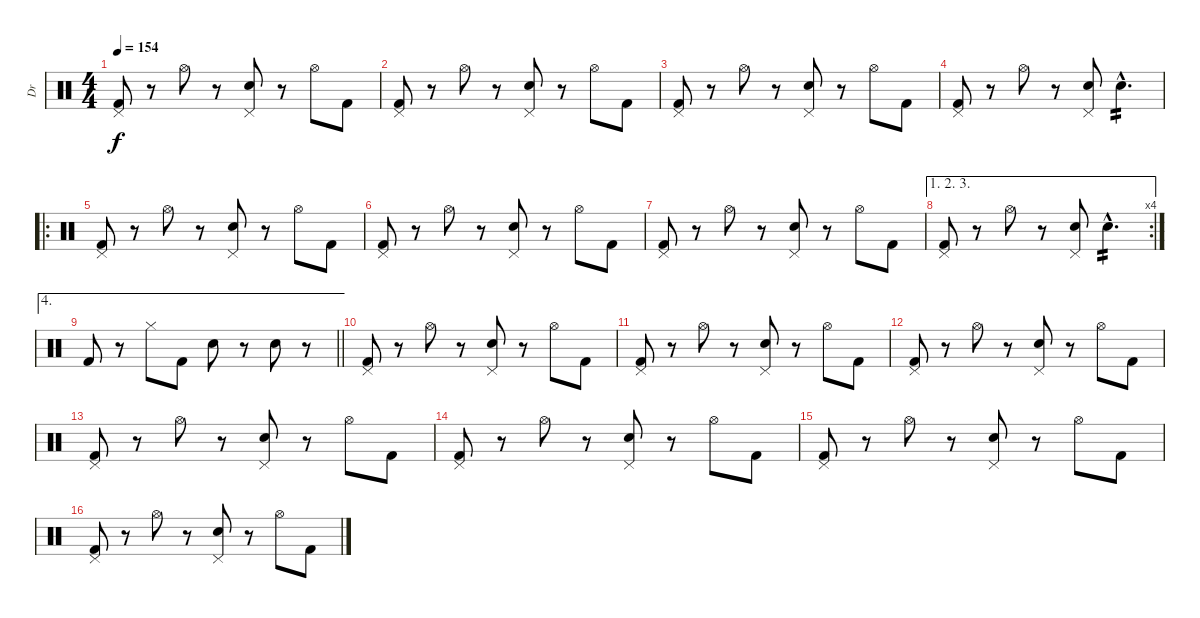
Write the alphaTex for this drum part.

\track ("Dr" "Dr") {instrument percussion}
\staff {score}
\articulation defaults
\ts (4 4)
\tempo 154
\clef neutral
\ks c
("Pedal Hi-Hat (hit)" "Kick (hit) 2").8{dy f} r.8 "Hi-Hat (open)".8 r.8 ("Pedal Hi-Hat (hit)" "Electric Snare (hit)").8 r.8 "Hi-Hat (open)".8 "Kick (hit) 2".8 |
("Pedal Hi-Hat (hit)" "Kick (hit) 2").8 r.8 "Hi-Hat (open)".8 r.8 ("Pedal Hi-Hat (hit)" "Electric Snare (hit)").8 r.8 "Hi-Hat (open)".8 "Kick (hit) 2".8 |
("Pedal Hi-Hat (hit)" "Kick (hit) 2").8 r.8 "Hi-Hat (open)".8 r.8 ("Pedal Hi-Hat (hit)" "Electric Snare (hit)").8 r.8 "Hi-Hat (open)".8 "Kick (hit) 2".8 |
("Pedal Hi-Hat (hit)" "Kick (hit) 2").8 r.8 "Hi-Hat (open)".8 r.8 ("Pedal Hi-Hat (hit)" "Electric Snare (hit)").8 "Electric Snare (hit)"{hac}.4{d tp 2} |
\ro
("Pedal Hi-Hat (hit)" "Kick (hit) 2").8 r.8 "Hi-Hat (open)".8 r.8 ("Pedal Hi-Hat (hit)" "Electric Snare (hit)").8 r.8 "Hi-Hat (open)".8 "Kick (hit) 2".8 |
("Pedal Hi-Hat (hit)" "Kick (hit) 2").8 r.8 "Hi-Hat (open)".8 r.8 ("Pedal Hi-Hat (hit)" "Electric Snare (hit)").8 r.8 "Hi-Hat (open)".8 "Kick (hit) 2".8 |
("Pedal Hi-Hat (hit)" "Kick (hit) 2").8 r.8 "Hi-Hat (open)".8 r.8 ("Pedal Hi-Hat (hit)" "Electric Snare (hit)").8 r.8 "Hi-Hat (open)".8 "Kick (hit) 2".8 |
\ae (1 2 3)
\rc 4
("Pedal Hi-Hat (hit)" "Kick (hit) 2").8 r.8 "Hi-Hat (open)".8 r.8 ("Pedal Hi-Hat (hit)" "Electric Snare (hit)").8 "Electric Snare (hit)"{hac}.4{d tp 2} |
\ae 4
\barLineRight lightlight "Kick (hit) 2".8
r.8 "Hi-Hat (closed)".8 "Kick (hit) 2".8 "Electric Snare (hit)".8 r.8 "Electric Snare (hit)".8 r.8 |
("Pedal Hi-Hat (hit)" "Kick (hit) 2").8 r.8 "Hi-Hat (open)".8 r.8 ("Pedal Hi-Hat (hit)" "Electric Snare (hit)").8 r.8 "Hi-Hat (open)".8 "Kick (hit) 2".8 |
("Pedal Hi-Hat (hit)" "Kick (hit) 2").8 r.8 "Hi-Hat (open)".8 r.8 ("Pedal Hi-Hat (hit)" "Electric Snare (hit)").8 r.8 "Hi-Hat (open)".8 "Kick (hit) 2".8 |
("Pedal Hi-Hat (hit)" "Kick (hit) 2").8 r.8 "Hi-Hat (open)".8 r.8 ("Pedal Hi-Hat (hit)" "Electric Snare (hit)").8 r.8 "Hi-Hat (open)".8 "Kick (hit) 2".8 |
("Pedal Hi-Hat (hit)" "Kick (hit) 2").8 r.8 "Hi-Hat (open)".8 r.8 ("Pedal Hi-Hat (hit)" "Electric Snare (hit)").8 r.8 "Hi-Hat (open)".8 "Kick (hit) 2".8 |
("Pedal Hi-Hat (hit)" "Kick (hit) 2").8 r.8 "Hi-Hat (open)".8 r.8 ("Pedal Hi-Hat (hit)" "Electric Snare (hit)").8 r.8 "Hi-Hat (open)".8 "Kick (hit) 2".8 |
("Pedal Hi-Hat (hit)" "Kick (hit) 2").8 r.8 "Hi-Hat (open)".8 r.8 ("Pedal Hi-Hat (hit)" "Electric Snare (hit)").8 r.8 "Hi-Hat (open)".8 "Kick (hit) 2".8 |
("Pedal Hi-Hat (hit)" "Kick (hit) 2").8 r.8 "Hi-Hat (open)".8 r.8 ("Pedal Hi-Hat (hit)" "Electric Snare (hit)").8 r.8 "Hi-Hat (open)".8 "Kick (hit) 2".8
